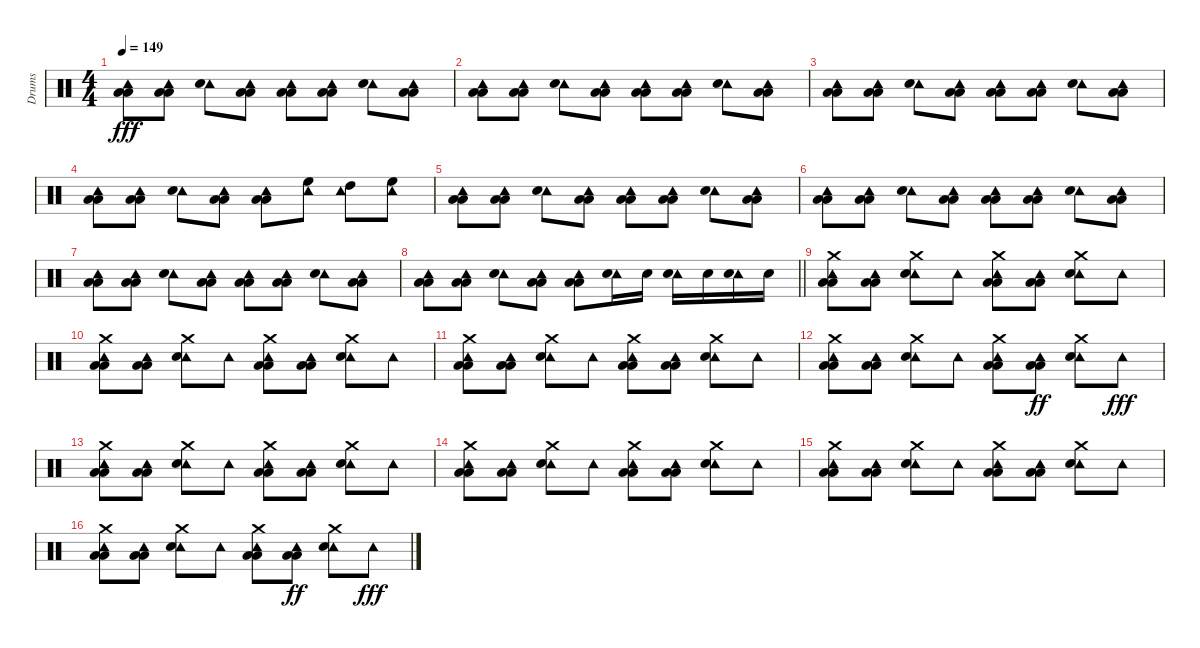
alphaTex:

\track ("Drums" "Drums") {instrument percussion}
\staff {score}
\articulation defaults
\ts (4 4)
\tempo 149
\clef neutral
\ks c
("Tambourine (hit)" "Low Floor Tom (hit)" "Low Floor Tom (hit)").8{dy fff} ("Tambourine (hit)" "Low Floor Tom (hit)" "Low Floor Tom (hit)").8 ("Tambourine (hit)" "Snare (hit) 2").8 ("Tambourine (hit)" "Low Floor Tom (hit)" "Low Floor Tom (hit)").8 ("Tambourine (hit)" "Low Floor Tom (hit)" "Low Floor Tom (hit)").8 ("Tambourine (hit)" "Low Floor Tom (hit)" "Low Floor Tom (hit)").8 ("Tambourine (hit)" "Snare (hit) 2").8 ("Tambourine (hit)" "Low Floor Tom (hit)" "Low Floor Tom (hit)").8 |
("Tambourine (hit)" "Low Floor Tom (hit)" "Low Floor Tom (hit)").8 ("Tambourine (hit)" "Low Floor Tom (hit)" "Low Floor Tom (hit)").8 ("Tambourine (hit)" "Snare (hit) 2").8 ("Tambourine (hit)" "Low Floor Tom (hit)" "Low Floor Tom (hit)").8 ("Tambourine (hit)" "Low Floor Tom (hit)" "Low Floor Tom (hit)").8 ("Tambourine (hit)" "Low Floor Tom (hit)" "Low Floor Tom (hit)").8 ("Tambourine (hit)" "Snare (hit) 2").8 ("Tambourine (hit)" "Low Floor Tom (hit)" "Low Floor Tom (hit)").8 |
("Tambourine (hit)" "Low Floor Tom (hit)" "Low Floor Tom (hit)").8 ("Tambourine (hit)" "Low Floor Tom (hit)" "Low Floor Tom (hit)").8 ("Tambourine (hit)" "Snare (hit) 2").8 ("Tambourine (hit)" "Low Floor Tom (hit)" "Low Floor Tom (hit)").8 ("Tambourine (hit)" "Low Floor Tom (hit)" "Low Floor Tom (hit)").8 ("Tambourine (hit)" "Low Floor Tom (hit)" "Low Floor Tom (hit)").8 ("Tambourine (hit)" "Snare (hit) 2").8 ("Tambourine (hit)" "Low Floor Tom (hit)" "Low Floor Tom (hit)").8 |
("Tambourine (hit)" "Low Floor Tom (hit)" "Low Floor Tom (hit)").8 ("Tambourine (hit)" "Low Floor Tom (hit)" "Low Floor Tom (hit)").8 ("Tambourine (hit)" "Snare (hit) 2").8 ("Tambourine (hit)" "Low Floor Tom (hit)" "Low Floor Tom (hit)").8 ("Tambourine (hit)" "Low Floor Tom (hit)" "Low Floor Tom (hit)").8 ("Tambourine (hit)" "High Floor Tom (hit)").8 ("Tambourine (hit)" "High Tom (hit)").8 ("Tambourine (hit)" "High Floor Tom (hit)").8 |
("Tambourine (hit)" "Low Floor Tom (hit)" "Low Floor Tom (hit)").8 ("Tambourine (hit)" "Low Floor Tom (hit)" "Low Floor Tom (hit)").8 ("Tambourine (hit)" "Snare (hit) 2").8 ("Tambourine (hit)" "Low Floor Tom (hit)" "Low Floor Tom (hit)").8 ("Tambourine (hit)" "Low Floor Tom (hit)" "Low Floor Tom (hit)").8 ("Tambourine (hit)" "Low Floor Tom (hit)" "Low Floor Tom (hit)").8 ("Tambourine (hit)" "Snare (hit) 2").8 ("Tambourine (hit)" "Low Floor Tom (hit)" "Low Floor Tom (hit)").8 |
("Tambourine (hit)" "Low Floor Tom (hit)" "Low Floor Tom (hit)").8 ("Tambourine (hit)" "Low Floor Tom (hit)" "Low Floor Tom (hit)").8 ("Tambourine (hit)" "Snare (hit) 2").8 ("Tambourine (hit)" "Low Floor Tom (hit)" "Low Floor Tom (hit)").8 ("Tambourine (hit)" "Low Floor Tom (hit)" "Low Floor Tom (hit)").8 ("Tambourine (hit)" "Low Floor Tom (hit)" "Low Floor Tom (hit)").8 ("Tambourine (hit)" "Snare (hit) 2").8 ("Tambourine (hit)" "Low Floor Tom (hit)" "Low Floor Tom (hit)").8 |
("Tambourine (hit)" "Low Floor Tom (hit)" "Low Floor Tom (hit)").8 ("Tambourine (hit)" "Low Floor Tom (hit)" "Low Floor Tom (hit)").8 ("Tambourine (hit)" "Snare (hit) 2").8 ("Tambourine (hit)" "Low Floor Tom (hit)" "Low Floor Tom (hit)").8 ("Tambourine (hit)" "Low Floor Tom (hit)" "Low Floor Tom (hit)").8 ("Tambourine (hit)" "Low Floor Tom (hit)" "Low Floor Tom (hit)").8 ("Tambourine (hit)" "Snare (hit) 2").8 ("Tambourine (hit)" "Low Floor Tom (hit)" "Low Floor Tom (hit)").8 |
\barLineRight lightlight
("Tambourine (hit)" "Low Floor Tom (hit)" "Low Floor Tom (hit)").8 ("Tambourine (hit)" "Low Floor Tom (hit)" "Low Floor Tom (hit)").8 ("Tambourine (hit)" "Snare (hit) 2").8 ("Tambourine (hit)" "Low Floor Tom (hit)" "Low Floor Tom (hit)").8 ("Tambourine (hit)" "Low Floor Tom (hit)" "Low Floor Tom (hit)").8 ("Tambourine (hit)" "Snare (hit) 2").16 "Snare (hit) 2".16 ("Tambourine (hit)" "Snare (hit) 2").16 "Snare (hit) 2".16 ("Tambourine (hit)" "Snare (hit) 2").16 "Snare (hit) 2".16 |
("Crash medium (hit)" "Tambourine (hit)" "Low Floor Tom (hit)" "Low Floor Tom (hit)").8 ("Tambourine (hit)" "Low Floor Tom (hit)" "Low Floor Tom (hit)").8 ("Crash medium (hit)" "Tambourine (hit)" "Snare (hit) 2").8 "Tambourine (hit)".8 ("Crash medium (hit)" "Tambourine (hit)" "Low Floor Tom (hit)" "Low Floor Tom (hit)").8 ("Tambourine (hit)" "Low Floor Tom (hit)" "Low Floor Tom (hit)").8 ("Crash medium (hit)" "Tambourine (hit)" "Snare (hit) 2").8 "Tambourine (hit)".8 |
("Crash medium (hit)" "Tambourine (hit)" "Low Floor Tom (hit)" "Low Floor Tom (hit)").8 ("Tambourine (hit)" "Low Floor Tom (hit)" "Low Floor Tom (hit)").8 ("Crash medium (hit)" "Tambourine (hit)" "Snare (hit) 2").8 "Tambourine (hit)".8 ("Crash medium (hit)" "Tambourine (hit)" "Low Floor Tom (hit)" "Low Floor Tom (hit)").8 ("Tambourine (hit)" "Low Floor Tom (hit)" "Low Floor Tom (hit)").8 ("Crash medium (hit)" "Tambourine (hit)" "Snare (hit) 2").8 "Tambourine (hit)".8 |
("Crash medium (hit)" "Tambourine (hit)" "Low Floor Tom (hit)" "Low Floor Tom (hit)").8 ("Tambourine (hit)" "Low Floor Tom (hit)" "Low Floor Tom (hit)").8 ("Crash medium (hit)" "Tambourine (hit)" "Snare (hit) 2").8 "Tambourine (hit)".8 ("Crash medium (hit)" "Tambourine (hit)" "Low Floor Tom (hit)" "Low Floor Tom (hit)").8 ("Tambourine (hit)" "Low Floor Tom (hit)" "Low Floor Tom (hit)").8 ("Crash medium (hit)" "Tambourine (hit)" "Snare (hit) 2").8 "Tambourine (hit)".8 |
("Crash medium (hit)" "Tambourine (hit)" "Low Floor Tom (hit)" "Low Floor Tom (hit)").8 ("Tambourine (hit)" "Low Floor Tom (hit)" "Low Floor Tom (hit)").8 ("Crash medium (hit)" "Tambourine (hit)" "Snare (hit) 2").8 "Tambourine (hit)".8 ("Crash medium (hit)" "Tambourine (hit)" "Low Floor Tom (hit)" "Low Floor Tom (hit)").8 ("Tambourine (hit)" "Low Floor Tom (hit)" "Low Floor Tom (hit)").8{dy ff} ("Crash medium (hit)" "Tambourine (hit)" "Snare (hit) 2").8 "Tambourine (hit)".8{dy fff} |
("Crash medium (hit)" "Tambourine (hit)" "Low Floor Tom (hit)" "Low Floor Tom (hit)").8 ("Tambourine (hit)" "Low Floor Tom (hit)" "Low Floor Tom (hit)").8 ("Crash medium (hit)" "Tambourine (hit)" "Snare (hit) 2").8 "Tambourine (hit)".8 ("Crash medium (hit)" "Tambourine (hit)" "Low Floor Tom (hit)" "Low Floor Tom (hit)").8 ("Tambourine (hit)" "Low Floor Tom (hit)" "Low Floor Tom (hit)").8 ("Crash medium (hit)" "Tambourine (hit)" "Snare (hit) 2").8 "Tambourine (hit)".8 |
("Crash medium (hit)" "Tambourine (hit)" "Low Floor Tom (hit)" "Low Floor Tom (hit)").8 ("Tambourine (hit)" "Low Floor Tom (hit)" "Low Floor Tom (hit)").8 ("Crash medium (hit)" "Tambourine (hit)" "Snare (hit) 2").8 "Tambourine (hit)".8 ("Crash medium (hit)" "Tambourine (hit)" "Low Floor Tom (hit)" "Low Floor Tom (hit)").8 ("Tambourine (hit)" "Low Floor Tom (hit)" "Low Floor Tom (hit)").8 ("Crash medium (hit)" "Tambourine (hit)" "Snare (hit) 2").8 "Tambourine (hit)".8 |
("Crash medium (hit)" "Tambourine (hit)" "Low Floor Tom (hit)" "Low Floor Tom (hit)").8 ("Tambourine (hit)" "Low Floor Tom (hit)" "Low Floor Tom (hit)").8 ("Crash medium (hit)" "Tambourine (hit)" "Snare (hit) 2").8 "Tambourine (hit)".8 ("Crash medium (hit)" "Tambourine (hit)" "Low Floor Tom (hit)" "Low Floor Tom (hit)").8 ("Tambourine (hit)" "Low Floor Tom (hit)" "Low Floor Tom (hit)").8 ("Crash medium (hit)" "Tambourine (hit)" "Snare (hit) 2").8 "Tambourine (hit)".8 |
("Crash medium (hit)" "Tambourine (hit)" "Low Floor Tom (hit)" "Low Floor Tom (hit)").8 ("Tambourine (hit)" "Low Floor Tom (hit)" "Low Floor Tom (hit)").8 ("Crash medium (hit)" "Tambourine (hit)" "Snare (hit) 2").8 "Tambourine (hit)".8 ("Crash medium (hit)" "Tambourine (hit)" "Low Floor Tom (hit)" "Low Floor Tom (hit)").8 ("Tambourine (hit)" "Low Floor Tom (hit)" "Low Floor Tom (hit)").8{dy ff} ("Crash medium (hit)" "Tambourine (hit)" "Snare (hit) 2").8 "Tambourine (hit)".8{dy fff}
